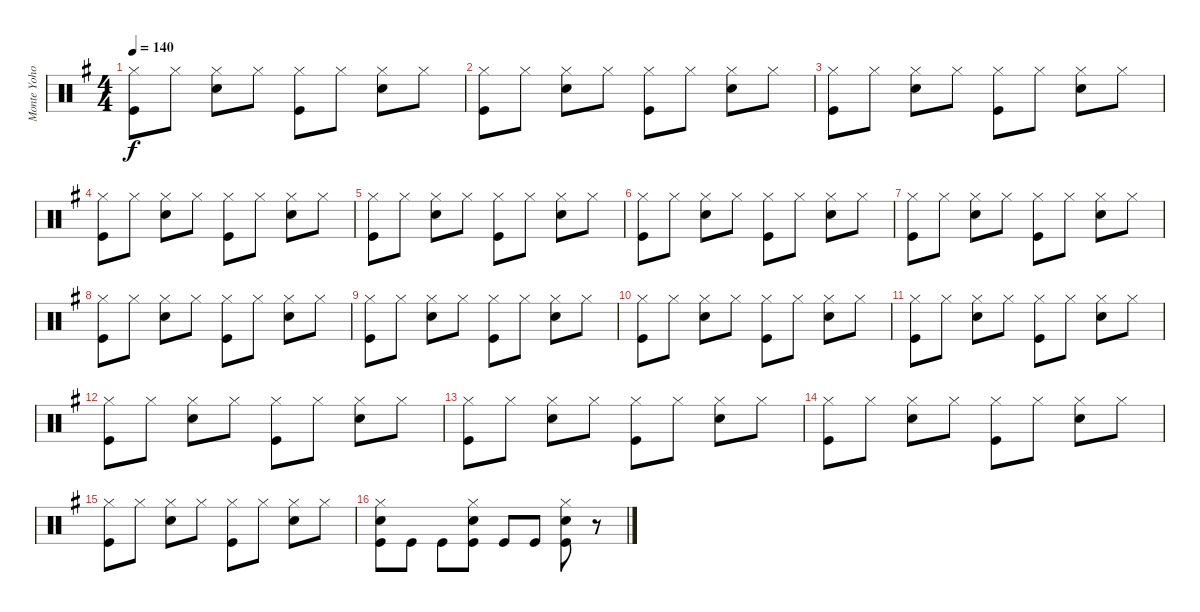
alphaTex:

\track ("Monte Yoho Drums" "Monte Yoho") {instrument percussion}
\staff {score}
\articulation defaults
\ts (4 4)
\tempo 140
\clef neutral
\ks g
("Hi-Hat (closed)" "Kick (hit)").8{dy f} "Hi-Hat (closed)".8 ("Hi-Hat (closed)" "Snare (hit) 2").8 "Hi-Hat (closed)".8 ("Hi-Hat (closed)" "Kick (hit)").8 "Hi-Hat (closed)".8 ("Hi-Hat (closed)" "Snare (hit) 2").8 "Hi-Hat (closed)".8 |
("Hi-Hat (closed)" "Kick (hit)").8 "Hi-Hat (closed)".8 ("Hi-Hat (closed)" "Snare (hit) 2").8 "Hi-Hat (closed)".8 ("Hi-Hat (closed)" "Kick (hit)").8 "Hi-Hat (closed)".8 ("Hi-Hat (closed)" "Snare (hit) 2").8 "Hi-Hat (closed)".8 |
("Hi-Hat (closed)" "Kick (hit)").8 "Hi-Hat (closed)".8 ("Hi-Hat (closed)" "Snare (hit) 2").8 "Hi-Hat (closed)".8 ("Hi-Hat (closed)" "Kick (hit)").8 "Hi-Hat (closed)".8 ("Hi-Hat (closed)" "Snare (hit) 2").8 "Hi-Hat (closed)".8 |
("Hi-Hat (closed)" "Kick (hit)").8 "Hi-Hat (closed)".8 ("Hi-Hat (closed)" "Snare (hit) 2").8 "Hi-Hat (closed)".8 ("Hi-Hat (closed)" "Kick (hit)").8 "Hi-Hat (closed)".8 ("Hi-Hat (closed)" "Snare (hit) 2").8 "Hi-Hat (closed)".8 |
("Hi-Hat (closed)" "Kick (hit)").8 "Hi-Hat (closed)".8 ("Hi-Hat (closed)" "Snare (hit) 2").8 "Hi-Hat (closed)".8 ("Hi-Hat (closed)" "Kick (hit)").8 "Hi-Hat (closed)".8 ("Hi-Hat (closed)" "Snare (hit) 2").8 "Hi-Hat (closed)".8 |
("Hi-Hat (closed)" "Kick (hit)").8 "Hi-Hat (closed)".8 ("Hi-Hat (closed)" "Snare (hit) 2").8 "Hi-Hat (closed)".8 ("Hi-Hat (closed)" "Kick (hit)").8 "Hi-Hat (closed)".8 ("Hi-Hat (closed)" "Snare (hit) 2").8 "Hi-Hat (closed)".8 |
("Hi-Hat (closed)" "Kick (hit)").8 "Hi-Hat (closed)".8 ("Hi-Hat (closed)" "Snare (hit) 2").8 "Hi-Hat (closed)".8 ("Hi-Hat (closed)" "Kick (hit)").8 "Hi-Hat (closed)".8 ("Hi-Hat (closed)" "Snare (hit) 2").8 "Hi-Hat (closed)".8 |
("Hi-Hat (closed)" "Kick (hit)").8 "Hi-Hat (closed)".8 ("Hi-Hat (closed)" "Snare (hit) 2").8 "Hi-Hat (closed)".8 ("Hi-Hat (closed)" "Kick (hit)").8 "Hi-Hat (closed)".8 ("Hi-Hat (closed)" "Snare (hit) 2").8 "Hi-Hat (closed)".8 |
("Hi-Hat (closed)" "Kick (hit)").8 "Hi-Hat (closed)".8 ("Hi-Hat (closed)" "Snare (hit) 2").8 "Hi-Hat (closed)".8 ("Hi-Hat (closed)" "Kick (hit)").8 "Hi-Hat (closed)".8 ("Hi-Hat (closed)" "Snare (hit) 2").8 "Hi-Hat (closed)".8 |
("Hi-Hat (closed)" "Kick (hit)").8 "Hi-Hat (closed)".8 ("Hi-Hat (closed)" "Snare (hit) 2").8 "Hi-Hat (closed)".8 ("Hi-Hat (closed)" "Kick (hit)").8 "Hi-Hat (closed)".8 ("Hi-Hat (closed)" "Snare (hit) 2").8 "Hi-Hat (closed)".8 |
("Hi-Hat (closed)" "Kick (hit)").8 "Hi-Hat (closed)".8 ("Hi-Hat (closed)" "Snare (hit) 2").8 "Hi-Hat (closed)".8 ("Hi-Hat (closed)" "Kick (hit)").8 "Hi-Hat (closed)".8 ("Hi-Hat (closed)" "Snare (hit) 2").8 "Hi-Hat (closed)".8 |
("Hi-Hat (closed)" "Kick (hit)").8 "Hi-Hat (closed)".8 ("Hi-Hat (closed)" "Snare (hit) 2").8 "Hi-Hat (closed)".8 ("Hi-Hat (closed)" "Kick (hit)").8 "Hi-Hat (closed)".8 ("Hi-Hat (closed)" "Snare (hit) 2").8 "Hi-Hat (closed)".8 |
("Hi-Hat (closed)" "Kick (hit)").8 "Hi-Hat (closed)".8 ("Hi-Hat (closed)" "Snare (hit) 2").8 "Hi-Hat (closed)".8 ("Hi-Hat (closed)" "Kick (hit)").8 "Hi-Hat (closed)".8 ("Hi-Hat (closed)" "Snare (hit) 2").8 "Hi-Hat (closed)".8 |
("Hi-Hat (closed)" "Kick (hit)").8 "Hi-Hat (closed)".8 ("Hi-Hat (closed)" "Snare (hit) 2").8 "Hi-Hat (closed)".8 ("Hi-Hat (closed)" "Kick (hit)").8 "Hi-Hat (closed)".8 ("Hi-Hat (closed)" "Snare (hit) 2").8 "Hi-Hat (closed)".8 |
("Hi-Hat (closed)" "Kick (hit)").8 "Hi-Hat (closed)".8 ("Hi-Hat (closed)" "Snare (hit) 2").8 "Hi-Hat (closed)".8 ("Hi-Hat (closed)" "Kick (hit)").8 "Hi-Hat (closed)".8 ("Hi-Hat (closed)" "Snare (hit) 2").8 "Hi-Hat (closed)".8 |
("Hi-Hat (closed)" "Snare (hit) 2" "Kick (hit)").8 "Kick (hit)".8 "Kick (hit)".8 ("Hi-Hat (closed)" "Snare (hit) 2" "Kick (hit)").8 "Kick (hit)".8 "Kick (hit)".8 ("Hi-Hat (closed)" "Snare (hit) 2" "Kick (hit)").8 r.8
